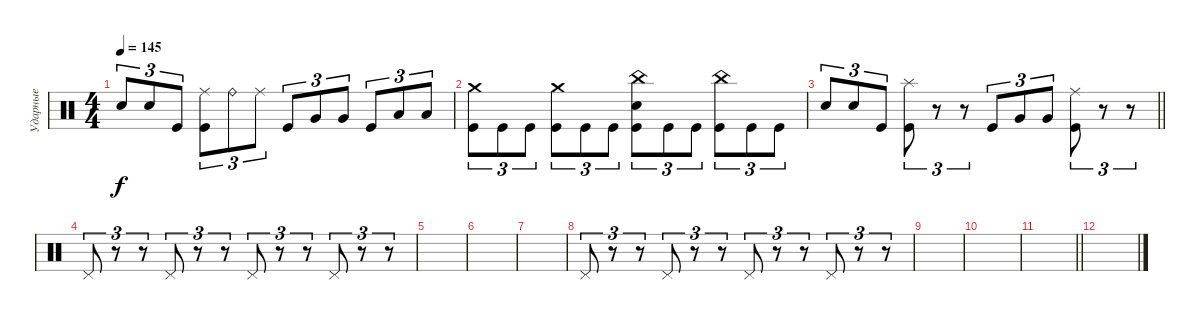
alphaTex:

\track ("Ударные" "Ударные") {instrument percussion}
\staff {score}
\articulation defaults
\ts (4 4)
\tempo 145
\clef neutral
\ks c "Electric Snare (hit)".8{tu (3 2) dy f} "Electric Snare (hit)".8{tu (3 2)} "Kick (hit)".8{tu (3 2)}
("Ride (middle)" "Kick (hit)").8{tu (3 2)} "Ride (bell)".8{tu (3 2)} "Ride (middle)".8{tu (3 2)} "Kick (hit)".8{tu (3 2)} "Very Low Tom (hit)".8{tu (3 2)} "Very Low Tom (hit)".8{tu (3 2)} "Kick (hit)".8{tu (3 2)} "Low Tom (hit)".8{tu (3 2)} "Low Tom (hit)".8{tu (3 2)} |
("Crash medium (hit)" "Kick (hit)").8{tu (3 2)} "Kick (hit)".8{tu (3 2)} "Kick (hit)".8{tu (3 2)} ("Crash medium (hit)" "Kick (hit)").8{tu (3 2)} "Kick (hit)".8{tu (3 2)} "Kick (hit)".8{tu (3 2)} ("China (hit)" "Electric Snare (hit)" "Kick (hit)").8{tu (3 2)} "Kick (hit)".8{tu (3 2)} "Kick (hit)".8{tu (3 2)} ("China (hit)" "Kick (hit)").8{tu (3 2)} "Kick (hit)".8{tu (3 2)} "Kick (hit)".8{tu (3 2)} |
\barLineRight lightlight "Electric Snare (hit)".8{tu (3 2)} "Electric Snare (hit)".8{tu (3 2)} "Kick (hit)".8{tu (3 2)}
("Splash (hit)" "Kick (hit)").8{tu (3 2)} r.8{tu (3 2)} r.8{tu (3 2)} "Kick (hit)".8{tu (3 2)} "Very Low Tom (hit)".8{tu (3 2)} "Very Low Tom (hit)".8{tu (3 2)} ("Ride (middle)" "Kick (hit)").8{tu (3 2)} r.8{tu (3 2)} r.8{tu (3 2)} |
\section ("" " ")
"Pedal Hi-Hat (hit)".8{tu (3 2)} r.8{tu (3 2)} r.8{tu (3 2)} "Pedal Hi-Hat (hit)".8{tu (3 2)} r.8{tu (3 2)} r.8{tu (3 2)} "Pedal Hi-Hat (hit)".8{tu (3 2)} r.8{tu (3 2)} r.8{tu (3 2)} "Pedal Hi-Hat (hit)".8{tu (3 2)} r.8{tu (3 2)} r.8{tu (3 2)} |
|
|
|
"Pedal Hi-Hat (hit)".8{tu (3 2)} r.8{tu (3 2)} r.8{tu (3 2)} "Pedal Hi-Hat (hit)".8{tu (3 2)} r.8{tu (3 2)} r.8{tu (3 2)} "Pedal Hi-Hat (hit)".8{tu (3 2)} r.8{tu (3 2)} r.8{tu (3 2)} "Pedal Hi-Hat (hit)".8{tu (3 2)} r.8{tu (3 2)} r.8{tu (3 2)} |
|
|
\barLineRight lightlight
|
\section ("" " ")
